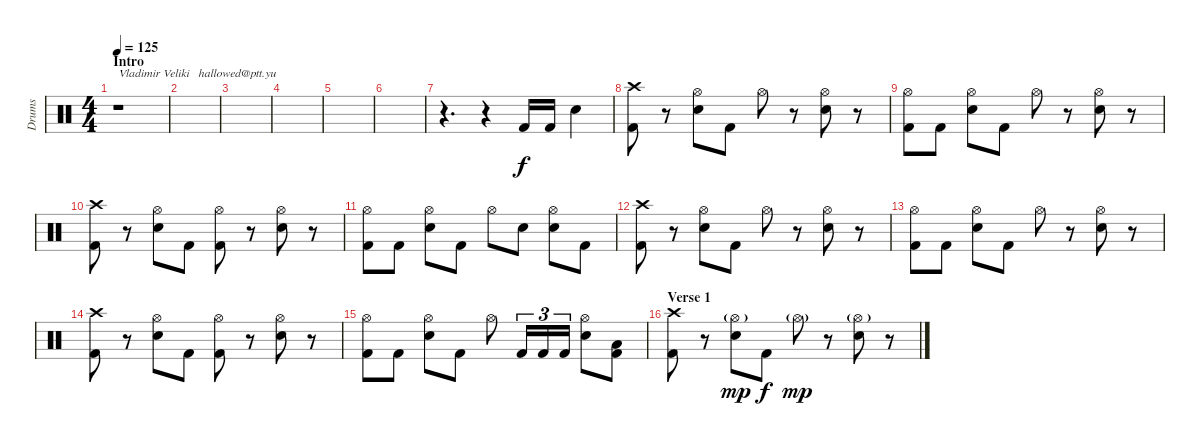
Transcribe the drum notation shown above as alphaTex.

\track ("Drums" "Drums") {instrument percussion}
\staff {score}
\articulation defaults
\ts (4 4)
\section ("" "Intro")
\tempo 125
\clef neutral
\ks c
r.1{txt "Vladimir Veliki   hallowed@ptt.yu" dy f} |
|
|
|
|
|
r.4{d} r.4 "Kick (hit) 2".16 "Kick (hit) 2".16 "Snare (hit) 2".4 |
("Crash high (hit)" "Kick (hit) 2").8 r.8 ("Hi-Hat (open)" "Snare (hit) 2").8 "Kick (hit) 2".8 "Hi-Hat (open)".8 r.8 ("Hi-Hat (open)" "Snare (hit) 2").8 r.8 |
("Hi-Hat (open)" "Kick (hit) 2").8 "Kick (hit) 2".8 ("Hi-Hat (open)" "Snare (hit) 2").8 "Kick (hit) 2".8 "Hi-Hat (open)".8 r.8 ("Hi-Hat (open)" "Snare (hit) 2").8 r.8 |
("Crash high (hit)" "Kick (hit) 2").8 r.8 ("Hi-Hat (open)" "Snare (hit) 2").8 "Kick (hit) 2".8 ("Hi-Hat (open)" "Kick (hit) 2").8 r.8 ("Hi-Hat (open)" "Snare (hit) 2").8 r.8 |
("Hi-Hat (open)" "Kick (hit) 2").8 "Kick (hit) 2".8 ("Hi-Hat (open)" "Snare (hit) 2").8 "Kick (hit) 2".8 "Hi-Hat (open)".8 "Snare (hit) 2".8 ("Hi-Hat (open)" "Snare (hit) 2").8 "Kick (hit) 2".8 |
("Crash high (hit)" "Kick (hit) 2").8 r.8 ("Hi-Hat (open)" "Snare (hit) 2").8 "Kick (hit) 2".8 "Hi-Hat (open)".8 r.8 ("Hi-Hat (open)" "Snare (hit) 2").8 r.8 |
("Hi-Hat (open)" "Kick (hit) 2").8 "Kick (hit) 2".8 ("Hi-Hat (open)" "Snare (hit) 2").8 "Kick (hit) 2".8 "Hi-Hat (open)".8 r.8 ("Hi-Hat (open)" "Snare (hit) 2").8 r.8 |
("Crash high (hit)" "Kick (hit) 2").8 r.8 ("Hi-Hat (open)" "Snare (hit) 2").8 "Kick (hit) 2".8 ("Hi-Hat (open)" "Kick (hit) 2").8 r.8 ("Hi-Hat (open)" "Snare (hit) 2").8 r.8 |
("Hi-Hat (open)" "Kick (hit) 2").8 "Kick (hit) 2".8 ("Hi-Hat (open)" "Snare (hit) 2").8 "Kick (hit) 2".8 "Hi-Hat (open)".8 "Kick (hit) 2".16{tu (3 2)} "Kick (hit) 2".16{tu (3 2)} "Kick (hit) 2".16{tu (3 2)} ("Hi-Hat (open)" "Snare (hit) 2").8 ("Low Tom (hit)" "Kick (hit) 2").8 |
\section ("" "Verse 1")
("Crash high (hit)" "Kick (hit) 2").8 r.8 ("Hi-Hat (open)"{g} "Snare (hit) 2").8{dy mp} "Kick (hit) 2".8{dy f} "Hi-Hat (open)"{g}.8{dy mp} r.8 ("Hi-Hat (open)"{g} "Snare (hit) 2").8 r.8
